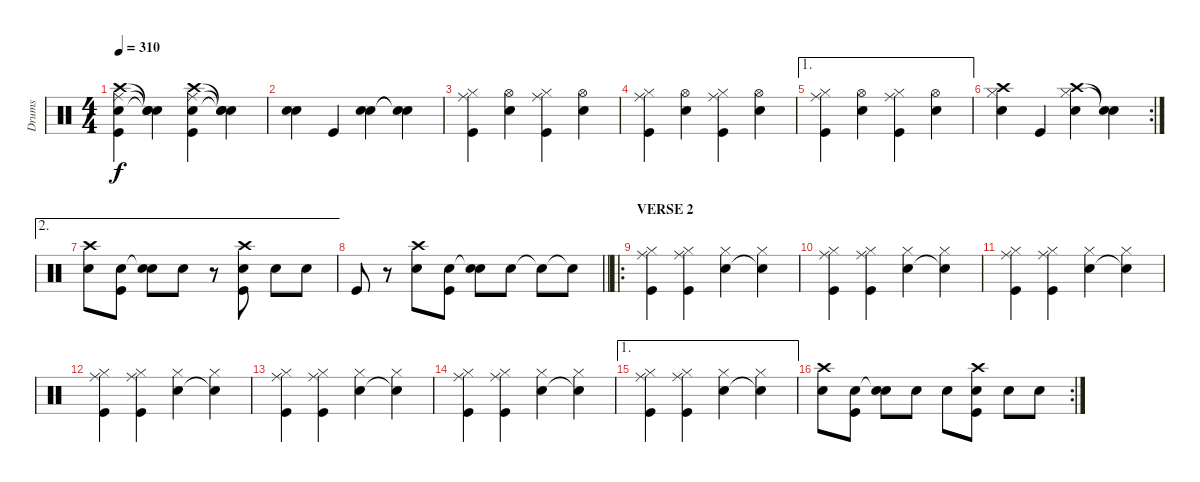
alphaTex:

\track ("Drums" "Drums") {instrument percussion}
\staff {score}
\articulation defaults
\ts (4 4)
\tempo 310
\clef neutral
\ks c
("Ride (middle)" "Crash high (hit)" "Snare (hit) 2" "Kick (hit)").4{dy f} ("Snare (hit)"{t} "Snare (hit)"{t} "Snare (hit)"{t}).4 ("Ride (middle)" "Crash high (hit)" "Snare (hit) 2" "Kick (hit)").4 ("Snare (hit)"{t} "Snare (hit)"{t} "Snare (hit)"{t}).4 |
("Snare (hit) 2" "Snare (hit) 2").4 "Kick (hit)".4 ("Snare (hit) 2" "Snare (hit) 2").4 ("Snare (hit)"{t} "Snare (hit)"{t}).4 |
("Ride (middle)" "Hi-Hat (closed)" "Kick (hit)").4 ("Hi-Hat (open)" "Snare (hit) 2").4 ("Ride (middle)" "Hi-Hat (closed)" "Kick (hit)").4 ("Hi-Hat (open)" "Snare (hit) 2").4 |
("Ride (middle)" "Hi-Hat (closed)" "Kick (hit)").4 ("Hi-Hat (open)" "Snare (hit) 2").4 ("Ride (middle)" "Hi-Hat (closed)" "Kick (hit)").4 ("Hi-Hat (open)" "Snare (hit) 2").4 |
\ae 1
("Ride (middle)" "Hi-Hat (closed)" "Kick (hit)").4 ("Hi-Hat (open)" "Snare (hit) 2").4 ("Ride (middle)" "Hi-Hat (closed)" "Kick (hit)").4 ("Hi-Hat (open)" "Snare (hit) 2").4 |
\rc 2
("Crash high (hit)" "Hi-Hat (closed)" "Snare (hit) 2").4 "Kick (hit)".4 ("Crash high (hit)" "Hi-Hat (closed)" "Snare (hit) 2").4 ("Snare (hit)"{t} "Snare (hit)"{t}).4 |
\ae 2
("Crash high (hit)" "Snare (hit) 2").8 ("Snare (hit) 2" "Kick (hit)").8 ("Snare (hit)"{t} "Snare (hit) 2").8 "Snare (hit) 2".8 r.8 ("Crash high (hit)" "Snare (hit) 2" "Kick (hit)").8 "Snare (hit) 2".8 "Snare (hit) 2".8 |
\barLineRight lightlight "Kick (hit)".8
r.8 ("Crash high (hit)" "Snare (hit) 2").8 ("Snare (hit) 2" "Kick (hit)").8 ("Snare (hit)"{t} "Snare (hit) 2").8 "Snare (hit) 2".8 "Snare (hit)"{t}.8 "Snare (hit)"{t}.8 |
\ro
\section ("" "VERSE 2")
("Ride (middle)" "Hi-Hat (closed)" "Kick (hit)").4 ("Ride (middle)" "Hi-Hat (closed)" "Kick (hit)").4 ("Snare (hit) 2" "Hi-Hat (closed)").4 ("Snare (hit)"{t} "Hi-Hat (closed)").4 |
("Ride (middle)" "Hi-Hat (closed)" "Kick (hit)").4 ("Ride (middle)" "Hi-Hat (closed)" "Kick (hit)").4 ("Snare (hit) 2" "Hi-Hat (closed)").4 ("Snare (hit)"{t} "Hi-Hat (closed)").4 |
("Ride (middle)" "Hi-Hat (closed)" "Kick (hit)").4 ("Ride (middle)" "Hi-Hat (closed)" "Kick (hit)").4 ("Snare (hit) 2" "Hi-Hat (closed)").4 ("Snare (hit)"{t} "Hi-Hat (closed)").4 |
("Ride (middle)" "Hi-Hat (closed)" "Kick (hit)").4 ("Ride (middle)" "Hi-Hat (closed)" "Kick (hit)").4 ("Snare (hit) 2" "Hi-Hat (closed)").4 ("Snare (hit)"{t} "Hi-Hat (closed)").4 |
("Ride (middle)" "Hi-Hat (closed)" "Kick (hit)").4 ("Ride (middle)" "Hi-Hat (closed)" "Kick (hit)").4 ("Snare (hit) 2" "Hi-Hat (closed)").4 ("Snare (hit)"{t} "Hi-Hat (closed)").4 |
("Ride (middle)" "Hi-Hat (closed)" "Kick (hit)").4 ("Ride (middle)" "Hi-Hat (closed)" "Kick (hit)").4 ("Snare (hit) 2" "Hi-Hat (closed)").4 ("Snare (hit)"{t} "Hi-Hat (closed)").4 |
\ae 1
("Ride (middle)" "Hi-Hat (closed)" "Kick (hit)").4 ("Ride (middle)" "Hi-Hat (closed)" "Kick (hit)").4 ("Snare (hit) 2" "Hi-Hat (closed)").4 ("Snare (hit)"{t} "Hi-Hat (closed)").4 |
\rc 2
("Crash high (hit)" "Snare (hit) 2").8 ("Snare (hit) 2" "Kick (hit)").8 ("Snare (hit)"{t} "Snare (hit) 2").8 "Snare (hit) 2".8 "Snare (hit) 2".8 ("Crash high (hit)" "Snare (hit) 2" "Kick (hit)").8 "Snare (hit) 2".8 "Snare (hit) 2".8
